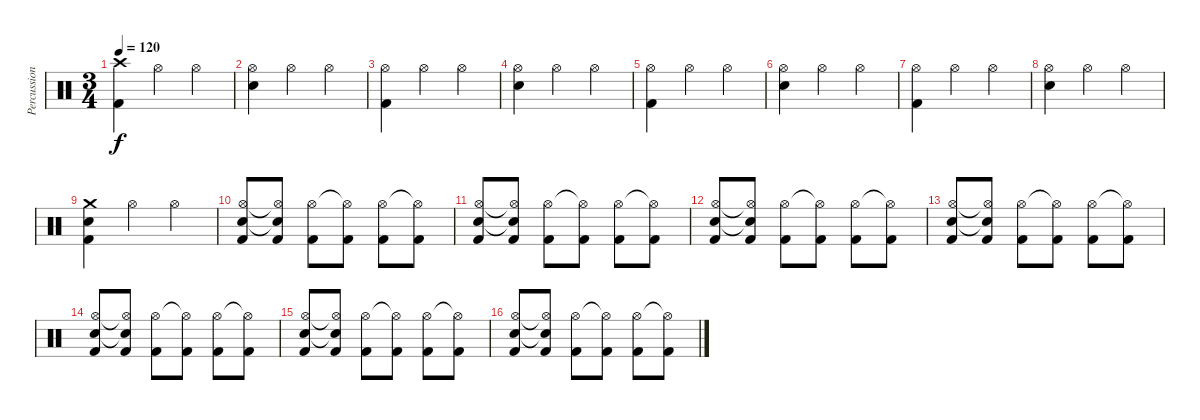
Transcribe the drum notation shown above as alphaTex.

\track ("Percussion" "Percussion") {instrument percussion}
\staff {score}
\articulation defaults
\ts (3 4)
\tempo 120
\clef neutral
\ks c
("Crash high (hit)" "Kick (hit) 2").4{dy f} "Hi-Hat (open)".4 "Hi-Hat (open)".4 |
("Hi-Hat (open)" "Electric Snare (hit)").4 "Hi-Hat (open)".4 "Hi-Hat (open)".4 |
("Hi-Hat (open)" "Kick (hit) 2").4 "Hi-Hat (open)".4 "Hi-Hat (open)".4 |
("Hi-Hat (open)" "Electric Snare (hit)").4 "Hi-Hat (open)".4 "Hi-Hat (open)".4 |
("Hi-Hat (open)" "Kick (hit) 2").4 "Hi-Hat (open)".4 "Hi-Hat (open)".4 |
("Hi-Hat (open)" "Electric Snare (hit)").4 "Hi-Hat (open)".4 "Hi-Hat (open)".4 |
("Hi-Hat (open)" "Kick (hit) 2").4 "Hi-Hat (open)".4 "Hi-Hat (open)".4 |
("Hi-Hat (open)" "Electric Snare (hit)").4 "Hi-Hat (open)".4 "Hi-Hat (open)".4 |
("Crash medium (hit)" "Electric Snare (hit)" "Kick (hit) 2").4 "Hi-Hat (open)".4 "Hi-Hat (open)".4 |
("Hi-Hat (open)" "Electric Snare (hit)" "Kick (hit) 2").8 ("Hi-Hat (open)"{t} "Electric Snare (hit)"{t} "Kick (hit) 2").8 ("Hi-Hat (open)" "Kick (hit) 2").8 ("Hi-Hat (open)"{t} "Kick (hit) 2").8 ("Hi-Hat (open)" "Kick (hit) 2").8 ("Hi-Hat (open)"{t} "Kick (hit) 2").8 |
("Hi-Hat (open)" "Electric Snare (hit)" "Kick (hit) 2").8 ("Hi-Hat (open)"{t} "Electric Snare (hit)"{t} "Kick (hit) 2").8 ("Hi-Hat (open)" "Kick (hit) 2").8 ("Hi-Hat (open)"{t} "Kick (hit) 2").8 ("Hi-Hat (open)" "Kick (hit) 2").8 ("Hi-Hat (open)"{t} "Kick (hit) 2").8 |
("Hi-Hat (open)" "Electric Snare (hit)" "Kick (hit) 2").8 ("Hi-Hat (open)"{t} "Electric Snare (hit)"{t} "Kick (hit) 2").8 ("Hi-Hat (open)" "Kick (hit) 2").8 ("Hi-Hat (open)"{t} "Kick (hit) 2").8 ("Hi-Hat (open)" "Kick (hit) 2").8 ("Hi-Hat (open)"{t} "Kick (hit) 2").8 |
("Hi-Hat (open)" "Electric Snare (hit)" "Kick (hit) 2").8 ("Hi-Hat (open)"{t} "Electric Snare (hit)"{t} "Kick (hit) 2").8 ("Hi-Hat (open)" "Kick (hit) 2").8 ("Hi-Hat (open)"{t} "Kick (hit) 2").8 ("Hi-Hat (open)" "Kick (hit) 2").8 ("Hi-Hat (open)"{t} "Kick (hit) 2").8 |
("Hi-Hat (open)" "Electric Snare (hit)" "Kick (hit) 2").8 ("Hi-Hat (open)"{t} "Electric Snare (hit)"{t} "Kick (hit) 2").8 ("Hi-Hat (open)" "Kick (hit) 2").8 ("Hi-Hat (open)"{t} "Kick (hit) 2").8 ("Hi-Hat (open)" "Kick (hit) 2").8 ("Hi-Hat (open)"{t} "Kick (hit) 2").8 |
("Hi-Hat (open)" "Electric Snare (hit)" "Kick (hit) 2").8 ("Hi-Hat (open)"{t} "Electric Snare (hit)"{t} "Kick (hit) 2").8 ("Hi-Hat (open)" "Kick (hit) 2").8 ("Hi-Hat (open)"{t} "Kick (hit) 2").8 ("Hi-Hat (open)" "Kick (hit) 2").8 ("Hi-Hat (open)"{t} "Kick (hit) 2").8 |
("Hi-Hat (open)" "Electric Snare (hit)" "Kick (hit) 2").8 ("Hi-Hat (open)"{t} "Electric Snare (hit)"{t} "Kick (hit) 2").8 ("Hi-Hat (open)" "Kick (hit) 2").8 ("Hi-Hat (open)"{t} "Kick (hit) 2").8 ("Hi-Hat (open)" "Kick (hit) 2").8 ("Hi-Hat (open)"{t} "Kick (hit) 2").8
